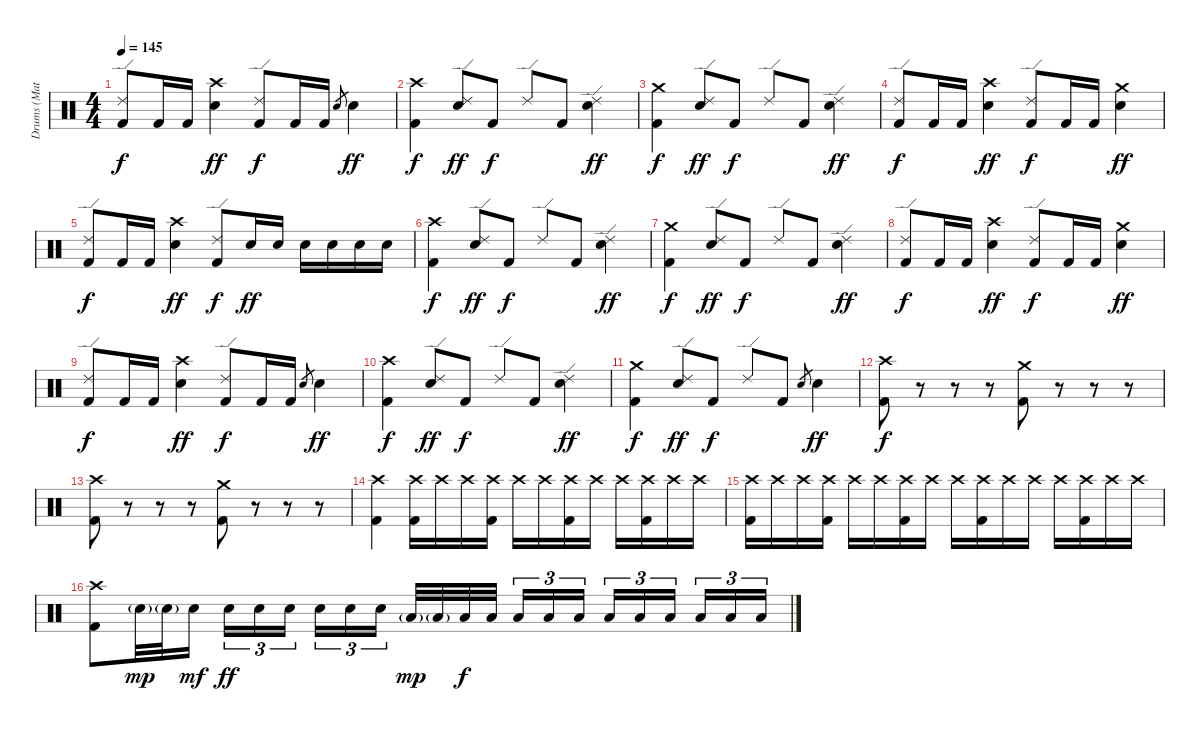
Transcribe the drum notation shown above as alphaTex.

\track ("Drums (Matt)" "Drums (Mat") {instrument percussion}
\staff {score}
\articulation defaults
\ts (4 4)
\tempo 145
\clef neutral
\ks c
("Ride (edge) 2" "Kick (hit) 2").8{dy f} "Kick (hit) 2".16 "Kick (hit) 2".16 ("Crash high (hit)" "Snare (hit) 2").4{dy ff} ("Ride (edge) 2" "Kick (hit) 2").8{dy f} "Kick (hit) 2".16 "Kick (hit) 2".16 "Snare (hit) 2".8{gr} "Snare (hit) 2".4{dy ff} |
("Crash high (hit)" "Kick (hit) 2").4{dy f} ("Ride (edge) 2" "Snare (hit) 2").8{dy ff} "Kick (hit) 2".8{dy f} "Ride (edge) 2".8 "Kick (hit) 2".8 ("Ride (edge) 2" "Snare (hit) 2").4{dy ff} |
("Crash medium (hit)" "Kick (hit) 2").4{dy f} ("Ride (edge) 2" "Snare (hit) 2").8{dy ff} "Kick (hit) 2".8{dy f} "Ride (edge) 2".8 "Kick (hit) 2".8 ("Ride (edge) 2" "Snare (hit) 2").4{dy ff} |
("Ride (edge) 2" "Kick (hit) 2").8{dy f} "Kick (hit) 2".16 "Kick (hit) 2".16 ("Crash high (hit)" "Snare (hit) 2").4{dy ff} ("Ride (edge) 2" "Kick (hit) 2").8{dy f} "Kick (hit) 2".16 "Kick (hit) 2".16 ("Crash medium (hit)" "Snare (hit) 2").4{dy ff} |
("Ride (edge) 2" "Kick (hit) 2").8{dy f} "Kick (hit) 2".16 "Kick (hit) 2".16 ("Crash high (hit)" "Snare (hit) 2").4{dy ff} ("Ride (edge) 2" "Kick (hit) 2").8{dy f} "Snare (hit) 2".16{dy ff} "Snare (hit) 2".16 "Snare (hit) 2".16 "Snare (hit) 2".16 "Snare (hit) 2".16 "Snare (hit) 2".16 |
("Crash high (hit)" "Kick (hit) 2").4{dy f} ("Ride (edge) 2" "Snare (hit) 2").8{dy ff} "Kick (hit) 2".8{dy f} "Ride (edge) 2".8 "Kick (hit) 2".8 ("Ride (edge) 2" "Snare (hit) 2").4{dy ff} |
("Crash medium (hit)" "Kick (hit) 2").4{dy f} ("Ride (edge) 2" "Snare (hit) 2").8{dy ff} "Kick (hit) 2".8{dy f} "Ride (edge) 2".8 "Kick (hit) 2".8 ("Ride (edge) 2" "Snare (hit) 2").4{dy ff} |
("Ride (edge) 2" "Kick (hit) 2").8{dy f} "Kick (hit) 2".16 "Kick (hit) 2".16 ("Crash high (hit)" "Snare (hit) 2").4{dy ff} ("Ride (edge) 2" "Kick (hit) 2").8{dy f} "Kick (hit) 2".16 "Kick (hit) 2".16 ("Crash medium (hit)" "Snare (hit) 2").4{dy ff} |
("Ride (edge) 2" "Kick (hit) 2").8{dy f} "Kick (hit) 2".16 "Kick (hit) 2".16 ("Crash high (hit)" "Snare (hit) 2").4{dy ff} ("Ride (edge) 2" "Kick (hit) 2").8{dy f} "Kick (hit) 2".16 "Kick (hit) 2".16 "Snare (hit) 2".8{gr} "Snare (hit) 2".4{dy ff} |
("Crash high (hit)" "Kick (hit) 2").4{dy f} ("Ride (edge) 2" "Snare (hit) 2").8{dy ff} "Kick (hit) 2".8{dy f} "Ride (edge) 2".8 "Kick (hit) 2".8 ("Ride (edge) 2" "Snare (hit) 2").4{dy ff} |
("Crash medium (hit)" "Kick (hit) 2").4{dy f} ("Ride (edge) 2" "Snare (hit) 2").8{dy ff} "Kick (hit) 2".8{dy f} "Ride (edge) 2".8 "Kick (hit) 2".8 "Snare (hit) 2".8{gr} "Snare (hit) 2".4{dy ff} |
("Crash high (hit)" "Kick (hit) 2").8{dy f} r.8{volume 0} r.8 r.8 ("Crash medium (hit)" "Kick (hit) 2").8{volume 16} r.8{volume 0} r.8 r.8 |
("Crash high (hit)" "Kick (hit) 2").8{volume 16} r.8{volume 0} r.8 r.8 ("Crash medium (hit)" "Kick (hit) 2").8{volume 16} r.8{volume 0} r.8 r.8 |
("Crash high (hit)" "Kick (hit) 2").4{volume 16} ("Crash high (hit)" "Kick (hit) 2").16 "Crash high (hit)".16 "Crash high (hit)".16 ("Crash high (hit)" "Kick (hit) 2").16 "Crash high (hit)".16 "Crash high (hit)".16 ("Crash high (hit)" "Kick (hit) 2").16 "Crash high (hit)".16 "Crash high (hit)".16 ("Crash high (hit)" "Kick (hit) 2").16 "Crash high (hit)".16 "Crash high (hit)".16 |
("Crash high (hit)" "Kick (hit) 2").16 "Crash high (hit)".16 "Crash high (hit)".16 ("Crash high (hit)" "Kick (hit) 2").16 "Crash high (hit)".16 "Crash high (hit)".16 ("Crash high (hit)" "Kick (hit) 2").16 "Crash high (hit)".16 "Crash high (hit)".16 ("Crash high (hit)" "Kick (hit) 2").16 "Crash high (hit)".16 "Crash high (hit)".16 "Crash high (hit)".16 ("Crash high (hit)" "Kick (hit) 2").16 "Crash high (hit)".16 "Crash high (hit)".16 |
("Crash high (hit)" "Kick (hit) 2").8 "Snare (hit) 2"{g}.32{dy mp} "Snare (hit) 2"{g}.32 "Snare (hit) 2".16{dy mf} "Snare (hit) 2".16{tu (3 2) dy ff} "Snare (hit) 2".16{tu (3 2)} "Snare (hit) 2".16{tu (3 2)} "Snare (hit) 2".16{tu (3 2)} "Snare (hit) 2".16{tu (3 2)} "Snare (hit) 2".16{tu (3 2)} "Low Tom (hit)"{g}.32{dy mp} "Low Tom (hit)"{g}.32 "Low Tom (hit)".32{dy f} "Low Tom (hit)".32 "Low Tom (hit)".16{tu (3 2)} "Low Tom (hit)".16{tu (3 2)} "Low Tom (hit)".16{tu (3 2)} "Low Tom (hit)".16{tu (3 2)} "Low Tom (hit)".16{tu (3 2)} "Low Tom (hit)".16{tu (3 2)} "Low Tom (hit)".16{tu (3 2)} "Low Tom (hit)".16{tu (3 2)} "Low Tom (hit)".16{tu (3 2)}
